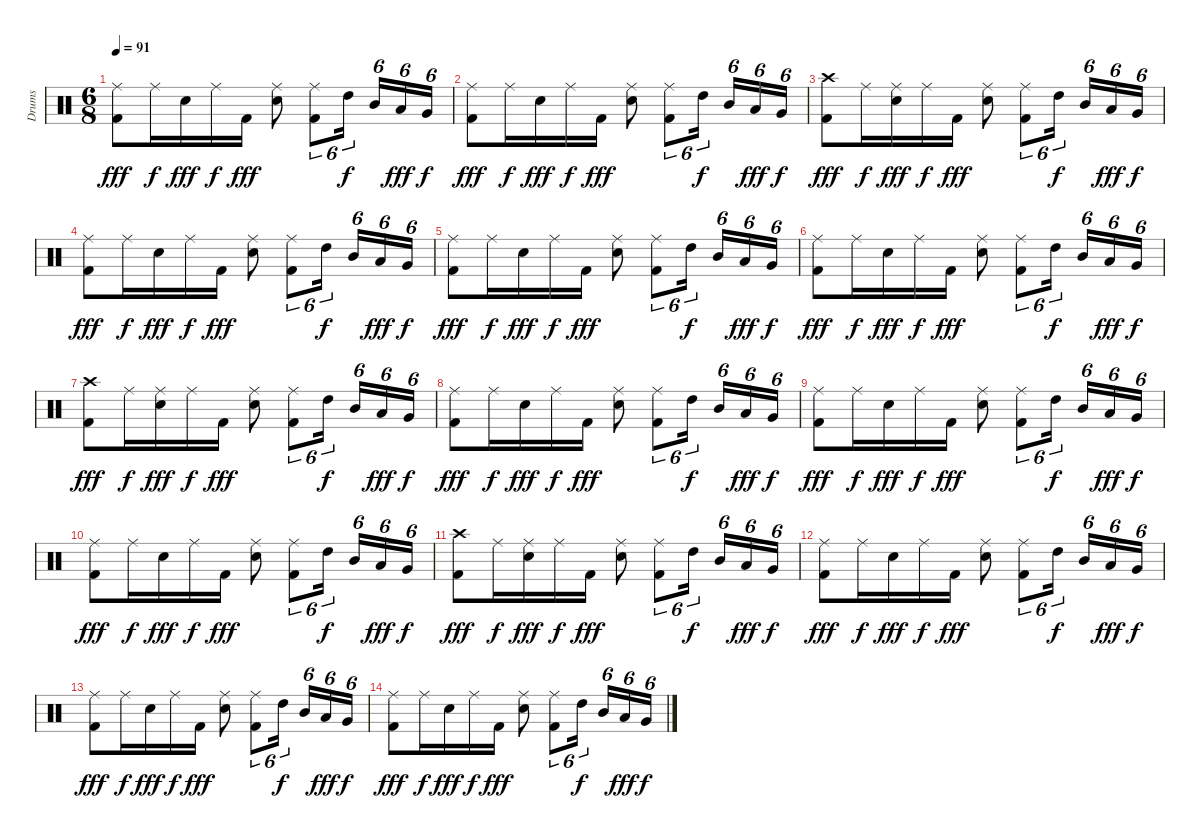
\track ("Drums" "Drums") {instrument percussion}
\staff {score}
\articulation defaults
\ts (6 8)
\tempo 91
\clef neutral
\ks c
("Ride (middle)" "Kick (hit) 2").8{dy fff} "Ride (middle)".16{dy f} "Electric Snare (hit)".16{dy fff} "Ride (middle)".16{dy f} "Kick (hit) 2".16{dy fff} ("Ride (middle)" "Electric Snare (hit)").8 ("Ride (middle)" "Kick (hit) 2").8{tu (6 4)} "High Tom (hit)".16{tu (6 4) dy f} "Mid Tom (hit)".16{tu (6 4)} "Low Tom (hit)".16{tu (6 4) dy fff} "Very Low Tom (hit)".16{tu (6 4) dy f} |
("Ride (middle)" "Kick (hit) 2").8{dy fff} "Ride (middle)".16{dy f} "Electric Snare (hit)".16{dy fff} "Ride (middle)".16{dy f} "Kick (hit) 2".16{dy fff} ("Ride (middle)" "Electric Snare (hit)").8 ("Ride (middle)" "Kick (hit) 2").8{tu (6 4)} "High Tom (hit)".16{tu (6 4) dy f} "Mid Tom (hit)".16{tu (6 4)} "Low Tom (hit)".16{tu (6 4) dy fff} "Very Low Tom (hit)".16{tu (6 4) dy f} |
("Crash high (hit)" "Kick (hit) 2").8{dy fff} "Ride (middle)".16{dy f} ("Ride (middle)" "Electric Snare (hit)").16{dy fff} "Ride (middle)".16{dy f} "Kick (hit) 2".16{dy fff} ("Ride (middle)" "Electric Snare (hit)").8 ("Ride (middle)" "Kick (hit) 2").8{tu (6 4)} "High Tom (hit)".16{tu (6 4) dy f} "Mid Tom (hit)".16{tu (6 4)} "Low Tom (hit)".16{tu (6 4) dy fff} "Very Low Tom (hit)".16{tu (6 4) dy f} |
("Ride (middle)" "Kick (hit) 2").8{dy fff} "Ride (middle)".16{dy f} "Electric Snare (hit)".16{dy fff} "Ride (middle)".16{dy f} "Kick (hit) 2".16{dy fff} ("Ride (middle)" "Electric Snare (hit)").8 ("Ride (middle)" "Kick (hit) 2").8{tu (6 4)} "High Tom (hit)".16{tu (6 4) dy f} "Mid Tom (hit)".16{tu (6 4)} "Low Tom (hit)".16{tu (6 4) dy fff} "Very Low Tom (hit)".16{tu (6 4) dy f} |
("Ride (middle)" "Kick (hit) 2").8{dy fff} "Ride (middle)".16{dy f} "Electric Snare (hit)".16{dy fff} "Ride (middle)".16{dy f} "Kick (hit) 2".16{dy fff} ("Ride (middle)" "Electric Snare (hit)").8 ("Ride (middle)" "Kick (hit) 2").8{tu (6 4)} "High Tom (hit)".16{tu (6 4) dy f} "Mid Tom (hit)".16{tu (6 4)} "Low Tom (hit)".16{tu (6 4) dy fff} "Very Low Tom (hit)".16{tu (6 4) dy f} |
("Ride (middle)" "Kick (hit) 2").8{dy fff} "Ride (middle)".16{dy f} "Electric Snare (hit)".16{dy fff} "Ride (middle)".16{dy f} "Kick (hit) 2".16{dy fff} ("Ride (middle)" "Electric Snare (hit)").8 ("Ride (middle)" "Kick (hit) 2").8{tu (6 4)} "High Tom (hit)".16{tu (6 4) dy f} "Mid Tom (hit)".16{tu (6 4)} "Low Tom (hit)".16{tu (6 4) dy fff} "Very Low Tom (hit)".16{tu (6 4) dy f} |
("Crash high (hit)" "Kick (hit) 2").8{dy fff volume 12} "Ride (middle)".16{dy f} ("Ride (middle)" "Electric Snare (hit)").16{dy fff} "Ride (middle)".16{dy f} "Kick (hit) 2".16{dy fff} ("Ride (middle)" "Electric Snare (hit)").8 ("Ride (middle)" "Kick (hit) 2").8{tu (6 4)} "High Tom (hit)".16{tu (6 4) dy f} "Mid Tom (hit)".16{tu (6 4)} "Low Tom (hit)".16{tu (6 4) dy fff} "Very Low Tom (hit)".16{tu (6 4) dy f} |
("Ride (middle)" "Kick (hit) 2").8{dy fff} "Ride (middle)".16{dy f} "Electric Snare (hit)".16{dy fff} "Ride (middle)".16{dy f} "Kick (hit) 2".16{dy fff} ("Ride (middle)" "Electric Snare (hit)").8 ("Ride (middle)" "Kick (hit) 2").8{tu (6 4)} "High Tom (hit)".16{tu (6 4) dy f} "Mid Tom (hit)".16{tu (6 4)} "Low Tom (hit)".16{tu (6 4) dy fff} "Very Low Tom (hit)".16{tu (6 4) dy f} |
("Ride (middle)" "Kick (hit) 2").8{dy fff} "Ride (middle)".16{dy f} "Electric Snare (hit)".16{dy fff} "Ride (middle)".16{dy f} "Kick (hit) 2".16{dy fff} ("Ride (middle)" "Electric Snare (hit)").8 ("Ride (middle)" "Kick (hit) 2").8{tu (6 4) volume 9} "High Tom (hit)".16{tu (6 4) dy f} "Mid Tom (hit)".16{tu (6 4)} "Low Tom (hit)".16{tu (6 4) dy fff} "Very Low Tom (hit)".16{tu (6 4) dy f} |
("Ride (middle)" "Kick (hit) 2").8{dy fff} "Ride (middle)".16{dy f} "Electric Snare (hit)".16{dy fff} "Ride (middle)".16{dy f} "Kick (hit) 2".16{dy fff} ("Ride (middle)" "Electric Snare (hit)").8 ("Ride (middle)" "Kick (hit) 2").8{tu (6 4)} "High Tom (hit)".16{tu (6 4) dy f} "Mid Tom (hit)".16{tu (6 4)} "Low Tom (hit)".16{tu (6 4) dy fff} "Very Low Tom (hit)".16{tu (6 4) dy f} |
("Crash high (hit)" "Kick (hit) 2").8{dy fff} "Ride (middle)".16{dy f} ("Ride (middle)" "Electric Snare (hit)").16{dy fff} "Ride (middle)".16{dy f} "Kick (hit) 2".16{dy fff} ("Ride (middle)" "Electric Snare (hit)").8 ("Ride (middle)" "Kick (hit) 2").8{tu (6 4)} "High Tom (hit)".16{tu (6 4) dy f} "Mid Tom (hit)".16{tu (6 4)} "Low Tom (hit)".16{tu (6 4) dy fff} "Very Low Tom (hit)".16{tu (6 4) dy f} |
("Ride (middle)" "Kick (hit) 2").8{dy fff} "Ride (middle)".16{dy f} "Electric Snare (hit)".16{dy fff} "Ride (middle)".16{dy f volume 2} "Kick (hit) 2".16{dy fff} ("Ride (middle)" "Electric Snare (hit)").8 ("Ride (middle)" "Kick (hit) 2").8{tu (6 4)} "High Tom (hit)".16{tu (6 4) dy f} "Mid Tom (hit)".16{tu (6 4)} "Low Tom (hit)".16{tu (6 4) dy fff} "Very Low Tom (hit)".16{tu (6 4) dy f} |
("Ride (middle)" "Kick (hit) 2").8{dy fff} "Ride (middle)".16{dy f} "Electric Snare (hit)".16{dy fff} "Ride (middle)".16{dy f} "Kick (hit) 2".16{dy fff} ("Ride (middle)" "Electric Snare (hit)").8 ("Ride (middle)" "Kick (hit) 2").8{tu (6 4)} "High Tom (hit)".16{tu (6 4) dy f} "Mid Tom (hit)".16{tu (6 4)} "Low Tom (hit)".16{tu (6 4) dy fff} "Very Low Tom (hit)".16{tu (6 4) dy f} |
("Ride (middle)" "Kick (hit) 2").8{dy fff} "Ride (middle)".16{dy f} "Electric Snare (hit)".16{dy fff} "Ride (middle)".16{dy f} "Kick (hit) 2".16{dy fff} ("Ride (middle)" "Electric Snare (hit)").8 ("Ride (middle)" "Kick (hit) 2").8{tu (6 4)} "High Tom (hit)".16{tu (6 4) dy f} "Mid Tom (hit)".16{tu (6 4)} "Low Tom (hit)".16{tu (6 4) dy fff} "Very Low Tom (hit)".16{tu (6 4) dy f}
